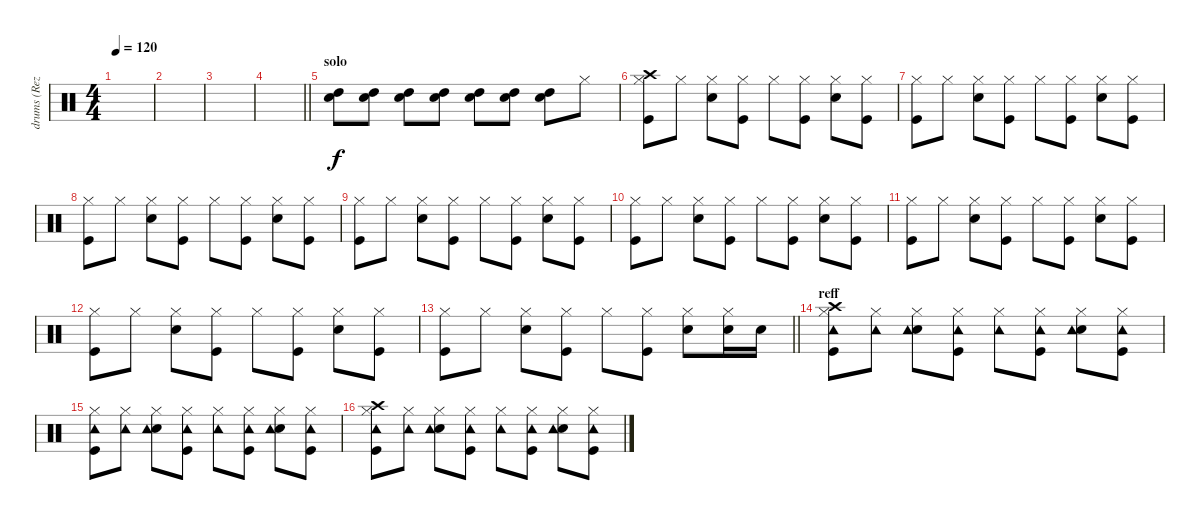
\track ("drums (Reza)" "drums (Rez") {instrument percussion}
\staff {score}
\articulation defaults
\ts (4 4)
\tempo 120
\clef neutral
\ks c
|
|
|
\barLineRight lightlight
|
\section ("" "solo")
("Snare (hit) 2" "High Tom (hit)").8 ("Snare (hit) 2" "High Tom (hit)").8 ("Snare (hit) 2" "High Tom (hit)").8 ("Snare (hit) 2" "High Tom (hit)").8 ("Snare (hit) 2" "High Tom (hit)").8 ("Snare (hit) 2" "High Tom (hit)").8 ("Snare (hit) 2" "High Tom (hit)").8 "Hi-Hat (closed)".8 |
("Hi-Hat (closed)" "Kick (hit)" "Crash high (hit)").8 "Hi-Hat (closed)".8 ("Hi-Hat (closed)" "Snare (hit) 2").8 ("Hi-Hat (closed)" "Kick (hit)").8 "Hi-Hat (closed)".8 ("Hi-Hat (closed)" "Kick (hit)").8 ("Hi-Hat (closed)" "Snare (hit) 2").8 ("Hi-Hat (closed)" "Kick (hit)").8 |
("Hi-Hat (closed)" "Kick (hit)").8 "Hi-Hat (closed)".8 ("Hi-Hat (closed)" "Snare (hit) 2").8 ("Hi-Hat (closed)" "Kick (hit)").8 "Hi-Hat (closed)".8 ("Hi-Hat (closed)" "Kick (hit)").8 ("Hi-Hat (closed)" "Snare (hit) 2").8 ("Hi-Hat (closed)" "Kick (hit)").8 |
("Hi-Hat (closed)" "Kick (hit)").8 "Hi-Hat (closed)".8 ("Hi-Hat (closed)" "Snare (hit) 2").8 ("Hi-Hat (closed)" "Kick (hit)").8 "Hi-Hat (closed)".8 ("Hi-Hat (closed)" "Kick (hit)").8 ("Hi-Hat (closed)" "Snare (hit) 2").8 ("Hi-Hat (closed)" "Kick (hit)").8 |
("Hi-Hat (closed)" "Kick (hit)").8 "Hi-Hat (closed)".8 ("Hi-Hat (closed)" "Snare (hit) 2").8 ("Hi-Hat (closed)" "Kick (hit)").8 "Hi-Hat (closed)".8 ("Hi-Hat (closed)" "Kick (hit)").8 ("Hi-Hat (closed)" "Snare (hit) 2").8 ("Hi-Hat (closed)" "Kick (hit)").8 |
("Hi-Hat (closed)" "Kick (hit)").8 "Hi-Hat (closed)".8 ("Hi-Hat (closed)" "Snare (hit) 2").8 ("Hi-Hat (closed)" "Kick (hit)").8 "Hi-Hat (closed)".8 ("Hi-Hat (closed)" "Kick (hit)").8 ("Hi-Hat (closed)" "Snare (hit) 2").8 ("Hi-Hat (closed)" "Kick (hit)").8 |
("Hi-Hat (closed)" "Kick (hit)").8 "Hi-Hat (closed)".8 ("Hi-Hat (closed)" "Snare (hit) 2").8 ("Hi-Hat (closed)" "Kick (hit)").8 "Hi-Hat (closed)".8 ("Hi-Hat (closed)" "Kick (hit)").8 ("Hi-Hat (closed)" "Snare (hit) 2").8 ("Hi-Hat (closed)" "Kick (hit)").8 |
("Hi-Hat (closed)" "Kick (hit)").8 "Hi-Hat (closed)".8 ("Hi-Hat (closed)" "Snare (hit) 2").8 ("Hi-Hat (closed)" "Kick (hit)").8 "Hi-Hat (closed)".8 ("Hi-Hat (closed)" "Kick (hit)").8 ("Hi-Hat (closed)" "Snare (hit) 2").8 ("Hi-Hat (closed)" "Kick (hit)").8 |
\barLineRight lightlight
("Hi-Hat (closed)" "Kick (hit)").8 "Hi-Hat (closed)".8 ("Hi-Hat (closed)" "Snare (hit) 2").8 ("Hi-Hat (closed)" "Kick (hit)").8 "Hi-Hat (closed)".8 ("Hi-Hat (closed)" "Kick (hit)").8 ("Hi-Hat (closed)" "Snare (hit) 2").8 ("Hi-Hat (closed)" "Snare (hit) 2").16 "Snare (hit) 2".16 |
\section ("" "reff")
("Hi-Hat (closed)" "Kick (hit)" "Crash high (hit)" "Tambourine (hit)").8 ("Hi-Hat (closed)" "Tambourine (hit)").8 ("Hi-Hat (closed)" "Snare (hit) 2" "Tambourine (hit)").8 ("Hi-Hat (closed)" "Kick (hit)" "Tambourine (hit)").8 ("Hi-Hat (closed)" "Tambourine (hit)").8 ("Hi-Hat (closed)" "Kick (hit)" "Tambourine (hit)").8 ("Hi-Hat (closed)" "Snare (hit) 2" "Tambourine (hit)").8 ("Hi-Hat (closed)" "Kick (hit)" "Tambourine (hit)").8 |
("Hi-Hat (closed)" "Kick (hit)" "Tambourine (hit)").8 ("Hi-Hat (closed)" "Tambourine (hit)").8 ("Hi-Hat (closed)" "Snare (hit) 2" "Tambourine (hit)").8 ("Hi-Hat (closed)" "Kick (hit)" "Tambourine (hit)").8 ("Hi-Hat (closed)" "Tambourine (hit)").8 ("Hi-Hat (closed)" "Kick (hit)" "Tambourine (hit)").8 ("Hi-Hat (closed)" "Snare (hit) 2" "Tambourine (hit)").8 ("Hi-Hat (closed)" "Kick (hit)" "Tambourine (hit)").8 |
("Hi-Hat (closed)" "Kick (hit)" "Crash high (hit)" "Tambourine (hit)").8 ("Hi-Hat (closed)" "Tambourine (hit)").8 ("Hi-Hat (closed)" "Snare (hit) 2" "Tambourine (hit)").8 ("Hi-Hat (closed)" "Kick (hit)" "Tambourine (hit)").8 ("Hi-Hat (closed)" "Tambourine (hit)").8 ("Hi-Hat (closed)" "Kick (hit)" "Tambourine (hit)").8 ("Hi-Hat (closed)" "Snare (hit) 2" "Tambourine (hit)").8 ("Hi-Hat (closed)" "Kick (hit)" "Tambourine (hit)").8
